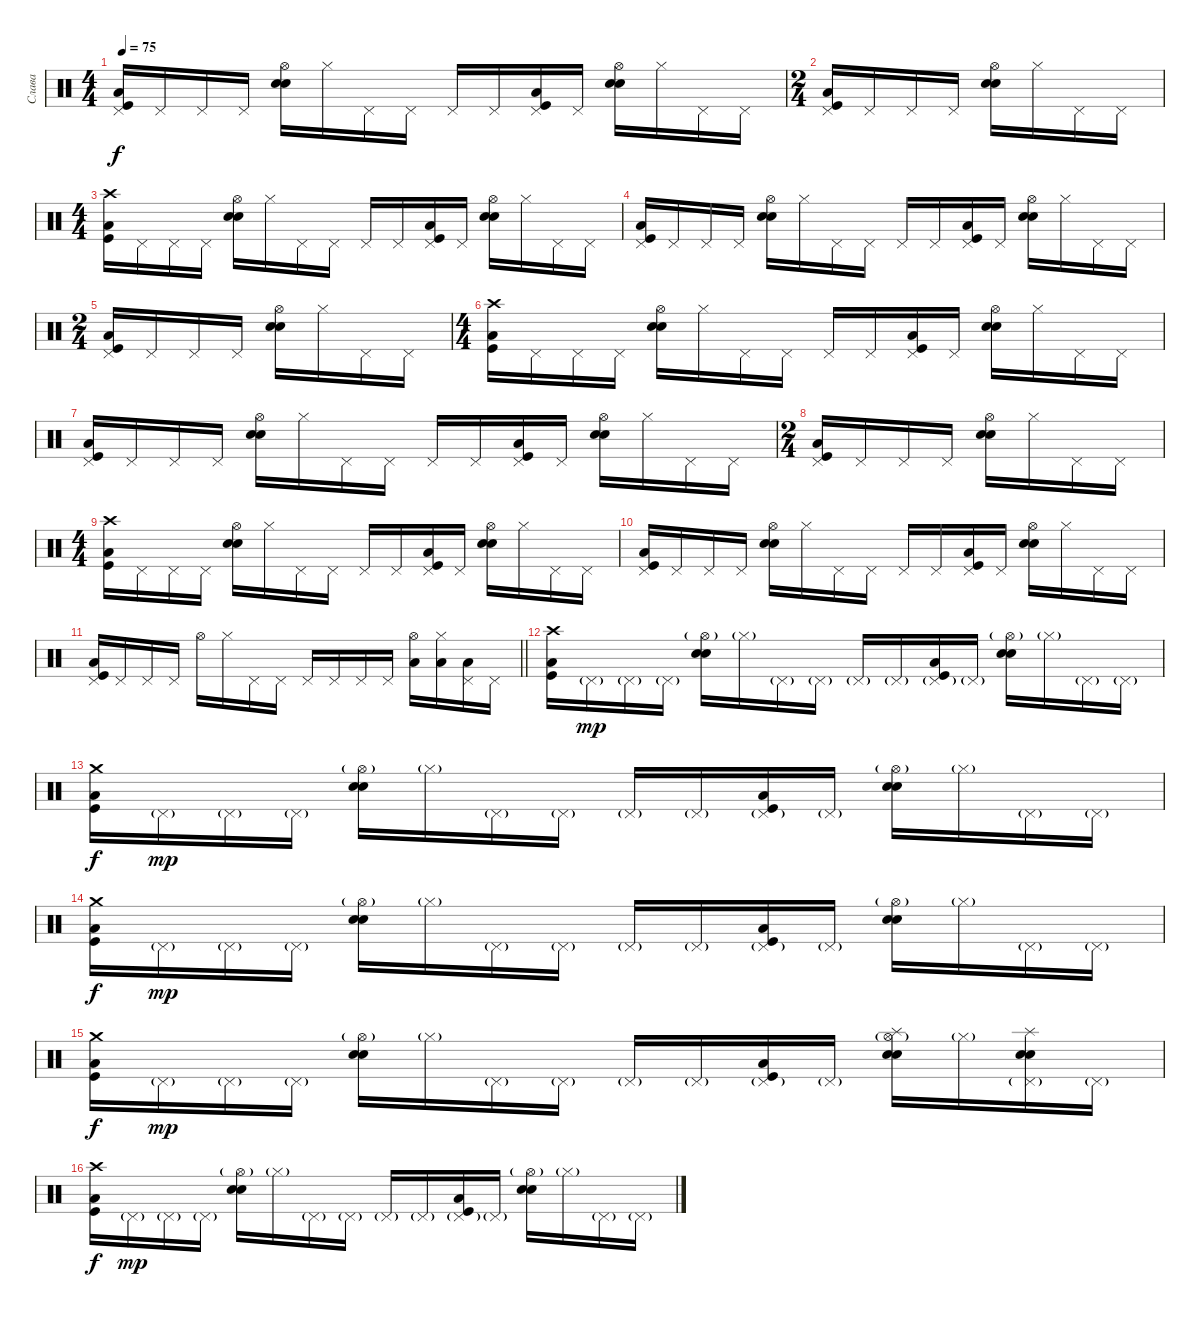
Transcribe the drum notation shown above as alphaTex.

\track ("Слава" "Слава") {instrument percussion}
\staff {score}
\articulation defaults
\ts (4 4)
\tempo 75
\clef neutral
\ks c
("Pedal Hi-Hat (hit)" "Low Tom (hit)" "Kick (hit)").16{dy f} "Pedal Hi-Hat (hit)".16 "Pedal Hi-Hat (hit)".16 "Pedal Hi-Hat (hit)".16 ("Hi-Hat (open)" "Electric Snare (hit)" "Snare (hit) 2").16 "Hi-Hat (closed)".16 "Pedal Hi-Hat (hit)".16 "Pedal Hi-Hat (hit)".16 "Pedal Hi-Hat (hit)".16 "Pedal Hi-Hat (hit)".16 ("Pedal Hi-Hat (hit)" "Low Tom (hit)" "Kick (hit)").16 "Pedal Hi-Hat (hit)".16 ("Hi-Hat (open)" "Electric Snare (hit)" "Snare (hit) 2").16 "Hi-Hat (closed)".16 "Pedal Hi-Hat (hit)".16 "Pedal Hi-Hat (hit)".16 |
\ts (2 4)
("Pedal Hi-Hat (hit)" "Low Tom (hit)" "Kick (hit)").16 "Pedal Hi-Hat (hit)".16 "Pedal Hi-Hat (hit)".16 "Pedal Hi-Hat (hit)".16 ("Hi-Hat (open)" "Electric Snare (hit)" "Snare (hit) 2").16 "Hi-Hat (closed)".16 "Pedal Hi-Hat (hit)".16 "Pedal Hi-Hat (hit)".16 |
\ts (4 4)
("Crash high (hit)" "Low Tom (hit)" "Kick (hit)").16 "Pedal Hi-Hat (hit)".16 "Pedal Hi-Hat (hit)".16 "Pedal Hi-Hat (hit)".16 ("Hi-Hat (open)" "Electric Snare (hit)" "Snare (hit) 2").16 "Hi-Hat (closed)".16 "Pedal Hi-Hat (hit)".16 "Pedal Hi-Hat (hit)".16 "Pedal Hi-Hat (hit)".16 "Pedal Hi-Hat (hit)".16 ("Pedal Hi-Hat (hit)" "Low Tom (hit)" "Kick (hit)").16 "Pedal Hi-Hat (hit)".16 ("Hi-Hat (open)" "Electric Snare (hit)" "Snare (hit) 2").16 "Hi-Hat (closed)".16 "Pedal Hi-Hat (hit)".16 "Pedal Hi-Hat (hit)".16 |
("Pedal Hi-Hat (hit)" "Low Tom (hit)" "Kick (hit)").16 "Pedal Hi-Hat (hit)".16 "Pedal Hi-Hat (hit)".16 "Pedal Hi-Hat (hit)".16 ("Hi-Hat (open)" "Electric Snare (hit)" "Snare (hit) 2").16 "Hi-Hat (closed)".16 "Pedal Hi-Hat (hit)".16 "Pedal Hi-Hat (hit)".16 "Pedal Hi-Hat (hit)".16 "Pedal Hi-Hat (hit)".16 ("Pedal Hi-Hat (hit)" "Low Tom (hit)" "Kick (hit)").16 "Pedal Hi-Hat (hit)".16 ("Hi-Hat (open)" "Electric Snare (hit)" "Snare (hit) 2").16 "Hi-Hat (closed)".16 "Pedal Hi-Hat (hit)".16 "Pedal Hi-Hat (hit)".16 |
\ts (2 4)
("Pedal Hi-Hat (hit)" "Low Tom (hit)" "Kick (hit)").16 "Pedal Hi-Hat (hit)".16 "Pedal Hi-Hat (hit)".16 "Pedal Hi-Hat (hit)".16 ("Hi-Hat (open)" "Electric Snare (hit)" "Snare (hit) 2").16 "Hi-Hat (closed)".16 "Pedal Hi-Hat (hit)".16 "Pedal Hi-Hat (hit)".16 |
\ts (4 4)
("Crash high (hit)" "Low Tom (hit)" "Kick (hit)").16 "Pedal Hi-Hat (hit)".16 "Pedal Hi-Hat (hit)".16 "Pedal Hi-Hat (hit)".16 ("Hi-Hat (open)" "Electric Snare (hit)" "Snare (hit) 2").16 "Hi-Hat (closed)".16 "Pedal Hi-Hat (hit)".16 "Pedal Hi-Hat (hit)".16 "Pedal Hi-Hat (hit)".16 "Pedal Hi-Hat (hit)".16 ("Pedal Hi-Hat (hit)" "Low Tom (hit)" "Kick (hit)").16 "Pedal Hi-Hat (hit)".16 ("Hi-Hat (open)" "Electric Snare (hit)" "Snare (hit) 2").16 "Hi-Hat (closed)".16 "Pedal Hi-Hat (hit)".16 "Pedal Hi-Hat (hit)".16 |
("Pedal Hi-Hat (hit)" "Low Tom (hit)" "Kick (hit)").16 "Pedal Hi-Hat (hit)".16 "Pedal Hi-Hat (hit)".16 "Pedal Hi-Hat (hit)".16 ("Hi-Hat (open)" "Electric Snare (hit)" "Snare (hit) 2").16 "Hi-Hat (closed)".16 "Pedal Hi-Hat (hit)".16 "Pedal Hi-Hat (hit)".16 "Pedal Hi-Hat (hit)".16 "Pedal Hi-Hat (hit)".16 ("Pedal Hi-Hat (hit)" "Low Tom (hit)" "Kick (hit)").16 "Pedal Hi-Hat (hit)".16 ("Hi-Hat (open)" "Electric Snare (hit)" "Snare (hit) 2").16 "Hi-Hat (closed)".16 "Pedal Hi-Hat (hit)".16 "Pedal Hi-Hat (hit)".16 |
\ts (2 4)
("Pedal Hi-Hat (hit)" "Low Tom (hit)" "Kick (hit)").16 "Pedal Hi-Hat (hit)".16 "Pedal Hi-Hat (hit)".16 "Pedal Hi-Hat (hit)".16 ("Hi-Hat (open)" "Electric Snare (hit)" "Snare (hit) 2").16 "Hi-Hat (closed)".16 "Pedal Hi-Hat (hit)".16 "Pedal Hi-Hat (hit)".16 |
\ts (4 4)
("Crash high (hit)" "Low Tom (hit)" "Kick (hit)").16 "Pedal Hi-Hat (hit)".16 "Pedal Hi-Hat (hit)".16 "Pedal Hi-Hat (hit)".16 ("Hi-Hat (open)" "Electric Snare (hit)" "Snare (hit) 2").16 "Hi-Hat (closed)".16 "Pedal Hi-Hat (hit)".16 "Pedal Hi-Hat (hit)".16 "Pedal Hi-Hat (hit)".16 "Pedal Hi-Hat (hit)".16 ("Pedal Hi-Hat (hit)" "Low Tom (hit)" "Kick (hit)").16 "Pedal Hi-Hat (hit)".16 ("Hi-Hat (open)" "Electric Snare (hit)" "Snare (hit) 2").16 "Hi-Hat (closed)".16 "Pedal Hi-Hat (hit)".16 "Pedal Hi-Hat (hit)".16 |
("Pedal Hi-Hat (hit)" "Low Tom (hit)" "Kick (hit)").16 "Pedal Hi-Hat (hit)".16 "Pedal Hi-Hat (hit)".16 "Pedal Hi-Hat (hit)".16 ("Hi-Hat (open)" "Electric Snare (hit)" "Snare (hit) 2").16 "Hi-Hat (closed)".16 "Pedal Hi-Hat (hit)".16 "Pedal Hi-Hat (hit)".16 "Pedal Hi-Hat (hit)".16 "Pedal Hi-Hat (hit)".16 ("Pedal Hi-Hat (hit)" "Low Tom (hit)" "Kick (hit)").16 "Pedal Hi-Hat (hit)".16 ("Hi-Hat (open)" "Electric Snare (hit)" "Snare (hit) 2").16 "Hi-Hat (closed)".16 "Pedal Hi-Hat (hit)".16 "Pedal Hi-Hat (hit)".16 |
\barLineRight lightlight
("Pedal Hi-Hat (hit)" "Low Tom (hit)" "Kick (hit)").16 "Pedal Hi-Hat (hit)".16 "Pedal Hi-Hat (hit)".16 "Pedal Hi-Hat (hit)".16 "Hi-Hat (open)".16 "Hi-Hat (closed)".16 "Pedal Hi-Hat (hit)".16 "Pedal Hi-Hat (hit)".16 "Pedal Hi-Hat (hit)".16 "Pedal Hi-Hat (hit)".16 "Pedal Hi-Hat (hit)".16 "Pedal Hi-Hat (hit)".16 ("Hi-Hat (open)" "Low Tom (hit)").16 ("Hi-Hat (closed)" "Low Tom (hit)").16 ("Pedal Hi-Hat (hit)" "Low Tom (hit)").16 "Pedal Hi-Hat (hit)".16 |
("Crash high (hit)" "Low Tom (hit)" "Kick (hit)").16 "Pedal Hi-Hat (hit)"{g}.16{dy mp} "Pedal Hi-Hat (hit)"{g}.16 "Pedal Hi-Hat (hit)"{g}.16 ("Hi-Hat (open)"{g} "Electric Snare (hit)" "Snare (hit) 2").16 "Hi-Hat (closed)"{g}.16 "Pedal Hi-Hat (hit)"{g}.16 "Pedal Hi-Hat (hit)"{g}.16 "Pedal Hi-Hat (hit)"{g}.16 "Pedal Hi-Hat (hit)"{g}.16 ("Pedal Hi-Hat (hit)"{g} "Low Tom (hit)" "Kick (hit)").16 "Pedal Hi-Hat (hit)"{g}.16 ("Hi-Hat (open)"{g} "Electric Snare (hit)" "Snare (hit) 2").16 "Hi-Hat (closed)"{g}.16 "Pedal Hi-Hat (hit)"{g}.16 "Pedal Hi-Hat (hit)"{g}.16 |
("Crash medium (hit)" "Low Tom (hit)" "Kick (hit)").16{dy f} "Pedal Hi-Hat (hit)"{g}.16{dy mp} "Pedal Hi-Hat (hit)"{g}.16 "Pedal Hi-Hat (hit)"{g}.16 ("Hi-Hat (open)"{g} "Electric Snare (hit)" "Snare (hit) 2").16 "Hi-Hat (closed)"{g}.16 "Pedal Hi-Hat (hit)"{g}.16 "Pedal Hi-Hat (hit)"{g}.16 "Pedal Hi-Hat (hit)"{g}.16 "Pedal Hi-Hat (hit)"{g}.16 ("Pedal Hi-Hat (hit)"{g} "Low Tom (hit)" "Kick (hit)").16 "Pedal Hi-Hat (hit)"{g}.16 ("Hi-Hat (open)"{g} "Electric Snare (hit)" "Snare (hit) 2").16 "Hi-Hat (closed)"{g}.16 "Pedal Hi-Hat (hit)"{g}.16 "Pedal Hi-Hat (hit)"{g}.16 |
("Crash medium (hit)" "Low Tom (hit)" "Kick (hit)").16{dy f} "Pedal Hi-Hat (hit)"{g}.16{dy mp} "Pedal Hi-Hat (hit)"{g}.16 "Pedal Hi-Hat (hit)"{g}.16 ("Hi-Hat (open)"{g} "Electric Snare (hit)" "Snare (hit) 2").16 "Hi-Hat (closed)"{g}.16 "Pedal Hi-Hat (hit)"{g}.16 "Pedal Hi-Hat (hit)"{g}.16 "Pedal Hi-Hat (hit)"{g}.16 "Pedal Hi-Hat (hit)"{g}.16 ("Pedal Hi-Hat (hit)"{g} "Low Tom (hit)" "Kick (hit)").16 "Pedal Hi-Hat (hit)"{g}.16 ("Hi-Hat (open)"{g} "Electric Snare (hit)" "Snare (hit) 2").16 "Hi-Hat (closed)"{g}.16 "Pedal Hi-Hat (hit)"{g}.16 "Pedal Hi-Hat (hit)"{g}.16 |
("Crash medium (hit)" "Low Tom (hit)" "Kick (hit)").16{dy f} "Pedal Hi-Hat (hit)"{g}.16{dy mp} "Pedal Hi-Hat (hit)"{g}.16 "Pedal Hi-Hat (hit)"{g}.16 ("Hi-Hat (open)"{g} "Electric Snare (hit)" "Snare (hit) 2").16 "Hi-Hat (closed)"{g}.16 "Pedal Hi-Hat (hit)"{g}.16 "Pedal Hi-Hat (hit)"{g}.16 "Pedal Hi-Hat (hit)"{g}.16 "Pedal Hi-Hat (hit)"{g}.16 ("Pedal Hi-Hat (hit)"{g} "Low Tom (hit)" "Kick (hit)").16 "Pedal Hi-Hat (hit)"{g}.16 ("Hi-Hat (open)"{g} "Splash (hit)" "Electric Snare (hit)" "Snare (hit) 2").16 "Hi-Hat (closed)"{g}.16 ("Pedal Hi-Hat (hit)"{g} "Splash (hit)" "Electric Snare (hit)" "Snare (hit) 2").16 "Pedal Hi-Hat (hit)"{g}.16 |
("Crash high (hit)" "Low Tom (hit)" "Kick (hit)").16{dy f} "Pedal Hi-Hat (hit)"{g}.16{dy mp} "Pedal Hi-Hat (hit)"{g}.16 "Pedal Hi-Hat (hit)"{g}.16 ("Hi-Hat (open)"{g} "Electric Snare (hit)" "Snare (hit) 2").16 "Hi-Hat (closed)"{g}.16 "Pedal Hi-Hat (hit)"{g}.16 "Pedal Hi-Hat (hit)"{g}.16 "Pedal Hi-Hat (hit)"{g}.16 "Pedal Hi-Hat (hit)"{g}.16 ("Pedal Hi-Hat (hit)"{g} "Low Tom (hit)" "Kick (hit)").16 "Pedal Hi-Hat (hit)"{g}.16 ("Hi-Hat (open)"{g} "Electric Snare (hit)" "Snare (hit) 2").16 "Hi-Hat (closed)"{g}.16 "Pedal Hi-Hat (hit)"{g}.16 "Pedal Hi-Hat (hit)"{g}.16
